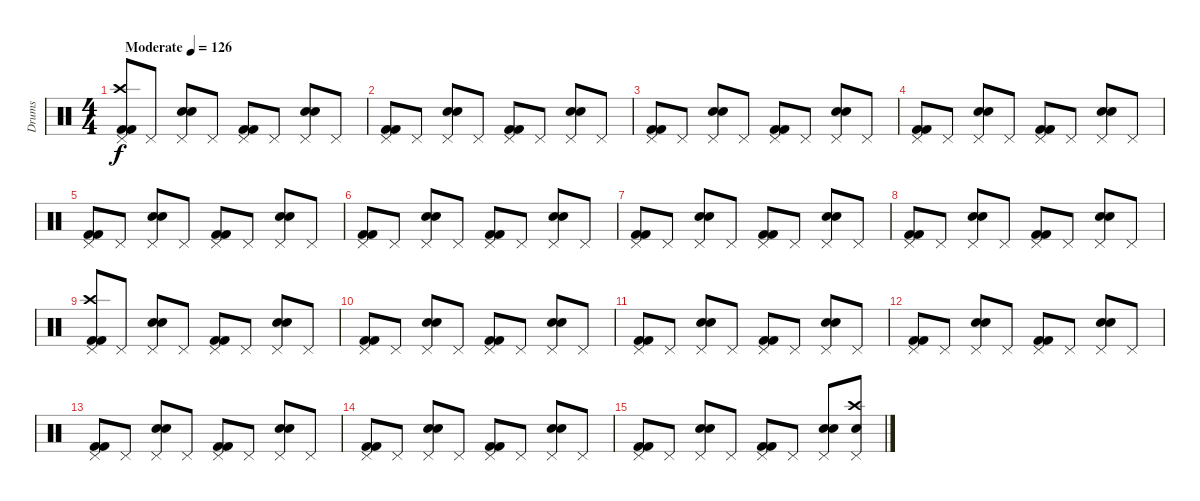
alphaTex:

\track ("Drums" "Drums") {instrument percussion}
\staff {score}
\articulation defaults
\ts (4 4)
\tempo (126 "Moderate")
\clef neutral
\ks c
("Pedal Hi-Hat (hit)" "Crash high (hit)" "Kick (hit) 2" "Kick (hit) 2").8{dy f} "Pedal Hi-Hat (hit)".8 ("Pedal Hi-Hat (hit)" "Electric Snare (hit)" "Snare (hit) 2").8 "Pedal Hi-Hat (hit)".8 ("Pedal Hi-Hat (hit)" "Kick (hit) 2" "Kick (hit) 2").8 "Pedal Hi-Hat (hit)".8 ("Pedal Hi-Hat (hit)" "Electric Snare (hit)" "Snare (hit) 2").8 "Pedal Hi-Hat (hit)".8 |
("Pedal Hi-Hat (hit)" "Kick (hit) 2" "Kick (hit) 2").8 "Pedal Hi-Hat (hit)".8 ("Pedal Hi-Hat (hit)" "Electric Snare (hit)" "Snare (hit) 2").8 "Pedal Hi-Hat (hit)".8 ("Pedal Hi-Hat (hit)" "Kick (hit) 2" "Kick (hit) 2").8 "Pedal Hi-Hat (hit)".8 ("Pedal Hi-Hat (hit)" "Electric Snare (hit)" "Snare (hit) 2").8 "Pedal Hi-Hat (hit)".8 |
("Pedal Hi-Hat (hit)" "Kick (hit) 2" "Kick (hit) 2").8 "Pedal Hi-Hat (hit)".8 ("Pedal Hi-Hat (hit)" "Electric Snare (hit)" "Snare (hit) 2").8 "Pedal Hi-Hat (hit)".8 ("Pedal Hi-Hat (hit)" "Kick (hit) 2" "Kick (hit) 2").8 "Pedal Hi-Hat (hit)".8 ("Pedal Hi-Hat (hit)" "Electric Snare (hit)" "Snare (hit) 2").8 "Pedal Hi-Hat (hit)".8 |
("Pedal Hi-Hat (hit)" "Kick (hit) 2" "Kick (hit) 2").8 "Pedal Hi-Hat (hit)".8 ("Pedal Hi-Hat (hit)" "Electric Snare (hit)" "Snare (hit) 2").8 "Pedal Hi-Hat (hit)".8 ("Pedal Hi-Hat (hit)" "Kick (hit) 2" "Kick (hit) 2").8 "Pedal Hi-Hat (hit)".8 ("Pedal Hi-Hat (hit)" "Electric Snare (hit)" "Snare (hit) 2").8 "Pedal Hi-Hat (hit)".8 |
("Pedal Hi-Hat (hit)" "Kick (hit) 2" "Kick (hit) 2").8 "Pedal Hi-Hat (hit)".8 ("Pedal Hi-Hat (hit)" "Electric Snare (hit)" "Snare (hit) 2").8 "Pedal Hi-Hat (hit)".8 ("Pedal Hi-Hat (hit)" "Kick (hit) 2" "Kick (hit) 2").8 "Pedal Hi-Hat (hit)".8 ("Pedal Hi-Hat (hit)" "Electric Snare (hit)" "Snare (hit) 2").8 "Pedal Hi-Hat (hit)".8 |
("Pedal Hi-Hat (hit)" "Kick (hit) 2" "Kick (hit) 2").8 "Pedal Hi-Hat (hit)".8 ("Pedal Hi-Hat (hit)" "Electric Snare (hit)" "Snare (hit) 2").8 "Pedal Hi-Hat (hit)".8 ("Pedal Hi-Hat (hit)" "Kick (hit) 2" "Kick (hit) 2").8 "Pedal Hi-Hat (hit)".8 ("Pedal Hi-Hat (hit)" "Electric Snare (hit)" "Snare (hit) 2").8 "Pedal Hi-Hat (hit)".8 |
("Pedal Hi-Hat (hit)" "Kick (hit) 2" "Kick (hit) 2").8 "Pedal Hi-Hat (hit)".8 ("Pedal Hi-Hat (hit)" "Electric Snare (hit)" "Snare (hit) 2").8 "Pedal Hi-Hat (hit)".8 ("Pedal Hi-Hat (hit)" "Kick (hit) 2" "Kick (hit) 2").8 "Pedal Hi-Hat (hit)".8 ("Pedal Hi-Hat (hit)" "Electric Snare (hit)" "Snare (hit) 2").8 "Pedal Hi-Hat (hit)".8 |
("Pedal Hi-Hat (hit)" "Kick (hit) 2" "Kick (hit) 2").8 "Pedal Hi-Hat (hit)".8 ("Pedal Hi-Hat (hit)" "Electric Snare (hit)" "Snare (hit) 2").8 "Pedal Hi-Hat (hit)".8 ("Pedal Hi-Hat (hit)" "Kick (hit) 2" "Kick (hit) 2").8 "Pedal Hi-Hat (hit)".8 ("Pedal Hi-Hat (hit)" "Electric Snare (hit)" "Snare (hit) 2").8 "Pedal Hi-Hat (hit)".8 |
("Pedal Hi-Hat (hit)" "Crash high (hit)" "Kick (hit) 2" "Kick (hit) 2").8 "Pedal Hi-Hat (hit)".8 ("Pedal Hi-Hat (hit)" "Electric Snare (hit)" "Snare (hit) 2").8 "Pedal Hi-Hat (hit)".8 ("Pedal Hi-Hat (hit)" "Kick (hit) 2" "Kick (hit) 2").8 "Pedal Hi-Hat (hit)".8 ("Pedal Hi-Hat (hit)" "Electric Snare (hit)" "Snare (hit) 2").8 "Pedal Hi-Hat (hit)".8 |
("Pedal Hi-Hat (hit)" "Kick (hit) 2" "Kick (hit) 2").8 "Pedal Hi-Hat (hit)".8 ("Pedal Hi-Hat (hit)" "Electric Snare (hit)" "Snare (hit) 2").8 "Pedal Hi-Hat (hit)".8 ("Pedal Hi-Hat (hit)" "Kick (hit) 2" "Kick (hit) 2").8 "Pedal Hi-Hat (hit)".8 ("Pedal Hi-Hat (hit)" "Electric Snare (hit)" "Snare (hit) 2").8 "Pedal Hi-Hat (hit)".8 |
("Pedal Hi-Hat (hit)" "Kick (hit) 2" "Kick (hit) 2").8 "Pedal Hi-Hat (hit)".8 ("Pedal Hi-Hat (hit)" "Electric Snare (hit)" "Snare (hit) 2").8 "Pedal Hi-Hat (hit)".8 ("Pedal Hi-Hat (hit)" "Kick (hit) 2" "Kick (hit) 2").8 "Pedal Hi-Hat (hit)".8 ("Pedal Hi-Hat (hit)" "Electric Snare (hit)" "Snare (hit) 2").8 "Pedal Hi-Hat (hit)".8 |
("Pedal Hi-Hat (hit)" "Kick (hit) 2" "Kick (hit) 2").8 "Pedal Hi-Hat (hit)".8 ("Pedal Hi-Hat (hit)" "Electric Snare (hit)" "Snare (hit) 2").8 "Pedal Hi-Hat (hit)".8 ("Pedal Hi-Hat (hit)" "Kick (hit) 2" "Kick (hit) 2").8 "Pedal Hi-Hat (hit)".8 ("Pedal Hi-Hat (hit)" "Electric Snare (hit)" "Snare (hit) 2").8 "Pedal Hi-Hat (hit)".8 |
("Pedal Hi-Hat (hit)" "Kick (hit) 2" "Kick (hit) 2").8 "Pedal Hi-Hat (hit)".8 ("Pedal Hi-Hat (hit)" "Electric Snare (hit)" "Snare (hit) 2").8 "Pedal Hi-Hat (hit)".8 ("Pedal Hi-Hat (hit)" "Kick (hit) 2" "Kick (hit) 2").8 "Pedal Hi-Hat (hit)".8 ("Pedal Hi-Hat (hit)" "Electric Snare (hit)" "Snare (hit) 2").8 "Pedal Hi-Hat (hit)".8 |
("Pedal Hi-Hat (hit)" "Kick (hit) 2" "Kick (hit) 2").8 "Pedal Hi-Hat (hit)".8 ("Pedal Hi-Hat (hit)" "Electric Snare (hit)" "Snare (hit) 2").8 "Pedal Hi-Hat (hit)".8 ("Pedal Hi-Hat (hit)" "Kick (hit) 2" "Kick (hit) 2").8 "Pedal Hi-Hat (hit)".8 ("Pedal Hi-Hat (hit)" "Electric Snare (hit)" "Snare (hit) 2").8 "Pedal Hi-Hat (hit)".8 |
("Pedal Hi-Hat (hit)" "Kick (hit) 2" "Kick (hit) 2").8 "Pedal Hi-Hat (hit)".8 ("Pedal Hi-Hat (hit)" "Electric Snare (hit)" "Snare (hit) 2").8 "Pedal Hi-Hat (hit)".8 ("Pedal Hi-Hat (hit)" "Kick (hit) 2" "Kick (hit) 2").8 "Pedal Hi-Hat (hit)".8 ("Pedal Hi-Hat (hit)" "Electric Snare (hit)" "Snare (hit) 2").8 ("Pedal Hi-Hat (hit)" "Crash high (hit)" "Electric Snare (hit)").8
